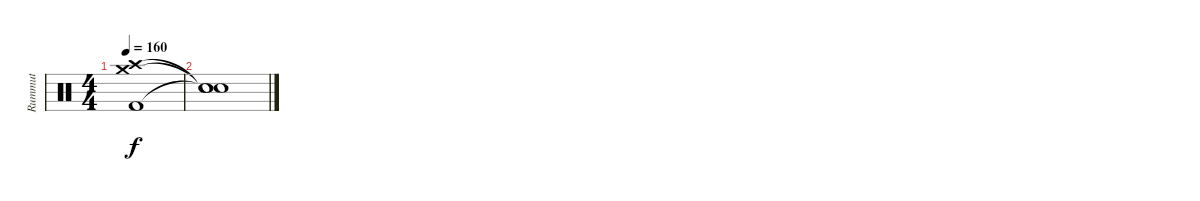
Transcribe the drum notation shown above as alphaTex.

\track ("Rummut" "Rummut") {instrument percussion}
\staff {score}
\articulation defaults
\ts (4 4)
\tempo 160
\clef neutral
\ks c
("Crash medium (hit)" "Crash high (hit)" "Kick (hit) 2").1{dy f} |
("Snare (hit)"{t} "Snare (hit)"{t} "Snare (hit)"{t}).1
